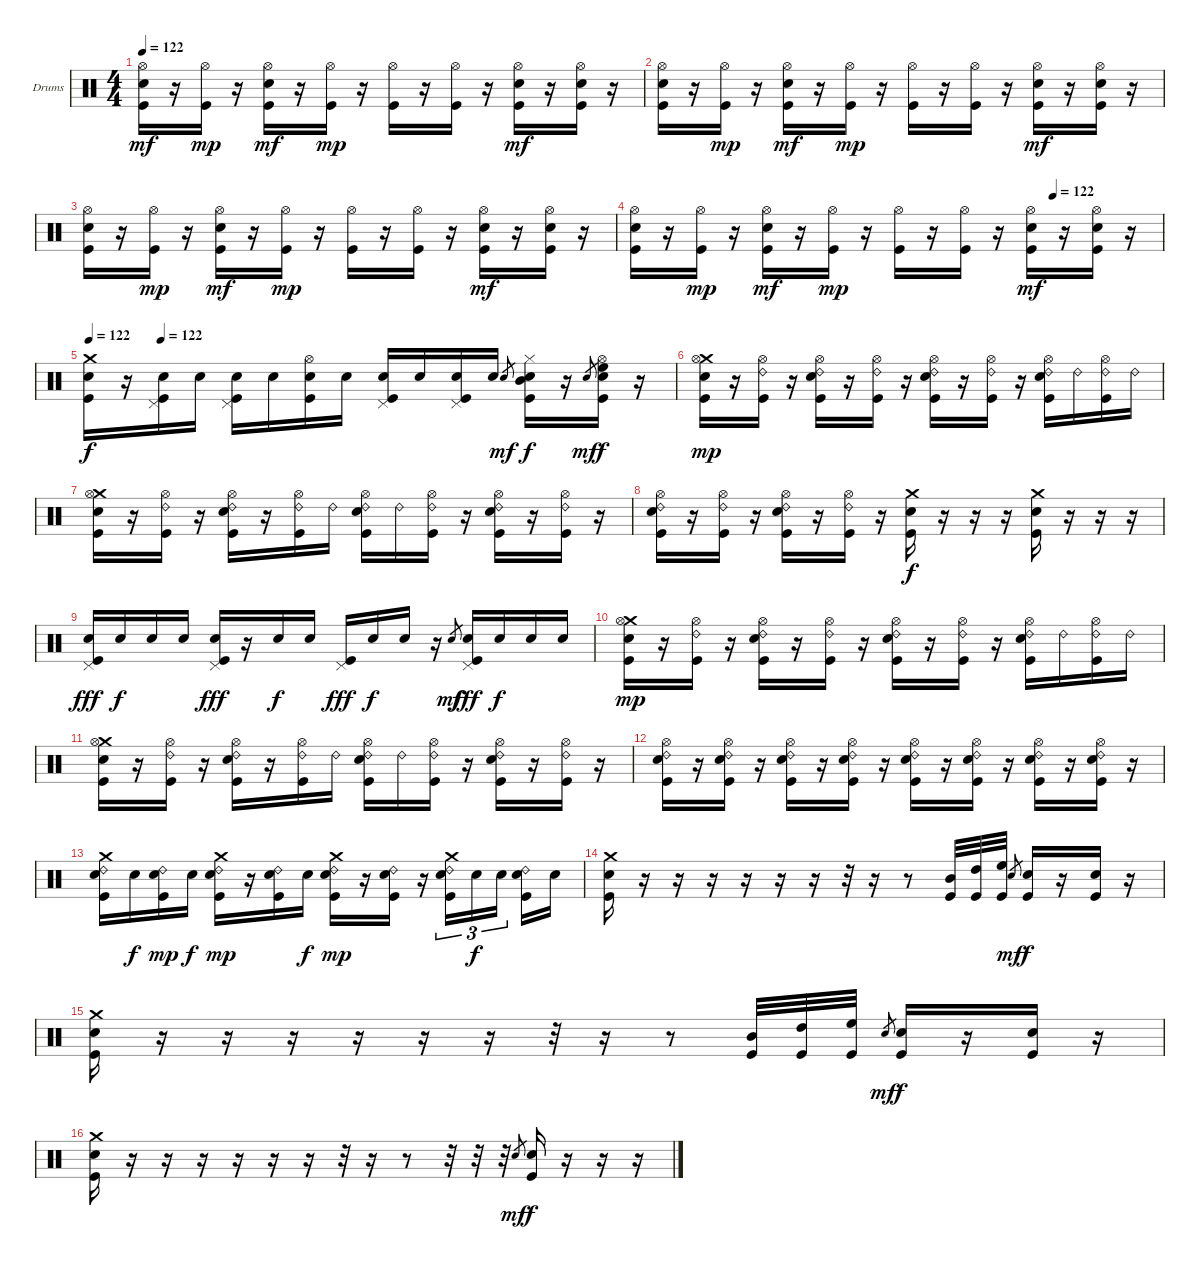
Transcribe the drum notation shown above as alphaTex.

\bracketExtendMode groupsimilarinstruments
\firstSystemTrackNameOrientation horizontal
\otherSystemsTrackNameOrientation horizontal
\track ("Drumkit" "Drums") {instrument percussion}
\staff {score}
\articulation defaults
\ts (4 4)
\tempo 122
\clef neutral
\ks c
("Hi-Hat (open)" "Snare (hit) 2" "Kick (hit)").16{dy mf} r.16 ("Hi-Hat (open)" "Kick (hit)").16{dy mp} r.16 ("Hi-Hat (open)" "Snare (hit) 2" "Kick (hit)").16{dy mf} r.16 ("Hi-Hat (open)" "Kick (hit)").16{dy mp} r.16 ("Hi-Hat (open)" "Kick (hit)").16 r.16 ("Hi-Hat (open)" "Kick (hit)").16 r.16 ("Hi-Hat (open)" "Snare (hit) 2" "Kick (hit)").16{dy mf} r.16 ("Hi-Hat (open)" "Snare (hit) 2" "Kick (hit)").16 r.16 |
("Hi-Hat (open)" "Snare (hit) 2" "Kick (hit)").16 r.16 ("Hi-Hat (open)" "Kick (hit)").16{dy mp} r.16 ("Hi-Hat (open)" "Snare (hit) 2" "Kick (hit)").16{dy mf} r.16 ("Hi-Hat (open)" "Kick (hit)").16{dy mp} r.16 ("Hi-Hat (open)" "Kick (hit)").16 r.16 ("Hi-Hat (open)" "Kick (hit)").16 r.16 ("Hi-Hat (open)" "Snare (hit) 2" "Kick (hit)").16{dy mf} r.16 ("Hi-Hat (open)" "Snare (hit) 2" "Kick (hit)").16 r.16 |
("Hi-Hat (open)" "Snare (hit) 2" "Kick (hit)").16 r.16 ("Hi-Hat (open)" "Kick (hit)").16{dy mp} r.16 ("Hi-Hat (open)" "Snare (hit) 2" "Kick (hit)").16{dy mf} r.16 ("Hi-Hat (open)" "Kick (hit)").16{dy mp} r.16 ("Hi-Hat (open)" "Kick (hit)").16 r.16 ("Hi-Hat (open)" "Kick (hit)").16 r.16 ("Hi-Hat (open)" "Snare (hit) 2" "Kick (hit)").16{dy mf} r.16 ("Hi-Hat (open)" "Snare (hit) 2" "Kick (hit)").16 r.16 |
\tempo (122 0.79375)
("Hi-Hat (open)" "Snare (hit) 2" "Kick (hit)").16 r.16 ("Hi-Hat (open)" "Kick (hit)").16{dy mp} r.16 ("Hi-Hat (open)" "Snare (hit) 2" "Kick (hit)").16{dy mf} r.16 ("Hi-Hat (open)" "Kick (hit)").16{dy mp} r.16 ("Hi-Hat (open)" "Kick (hit)").16 r.16 ("Hi-Hat (open)" "Kick (hit)").16 r.16 ("Hi-Hat (open)" "Snare (hit) 2" "Kick (hit)").16{dy mf} r.16 ("Hi-Hat (open)" "Snare (hit) 2" "Kick (hit)").16 r.16 |
\tempo 122
\tempo (122 0.123077)
("Crash medium (hit)" "Snare (hit) 2" "Kick (hit)").16{dy f} r.16 ("Pedal Hi-Hat (hit)" "Snare (hit) 2" "Kick (hit)").16 "Snare (hit) 2".16 ("Pedal Hi-Hat (hit)" "Snare (hit) 2" "Kick (hit)").16 "Snare (hit) 2".16 ("Hi-Hat (open)" "Snare (hit) 2" "Kick (hit)").16 "Snare (hit) 2".16 ("Pedal Hi-Hat (hit)" "Snare (hit) 2" "Kick (hit)").16 "Snare (hit) 2".16 ("Pedal Hi-Hat (hit)" "Snare (hit) 2" "Kick (hit)").16 "Snare (hit) 2".16 "Snare (hit) 2".8{gr dy mf} ("Hi-Hat (closed)" "Snare (hit) 2" "Mid Tom (hit)" "Kick (hit)").16{dy f} r.16 "Snare (hit) 2".8{gr dy mf} ("Hi-Hat (open)" "Snare (hit) 2" "High Floor Tom (hit)" "Kick (hit)").16{dy f} r.16 |
\section ("" "")
("Crash medium (hit)" "Hi-Hat (open)" "Snare (hit) 2" "Kick (hit)").16{dy mp} r.16 ("Ride (bell) 2" "Hi-Hat (open)" "Kick (hit)").16 r.16 ("Ride (bell) 2" "Hi-Hat (open)" "Snare (hit) 2" "Kick (hit)").16 r.16 ("Ride (bell) 2" "Hi-Hat (open)" "Kick (hit)").16 r.16 ("Ride (bell) 2" "Hi-Hat (open)" "Snare (hit) 2" "Kick (hit)").16 r.16 ("Ride (bell) 2" "Hi-Hat (open)" "Kick (hit)").16 r.16 ("Ride (bell) 2" "Hi-Hat (open)" "Snare (hit) 2" "Kick (hit)").16 "Ride (bell) 2".16 ("Ride (bell) 2" "Hi-Hat (open)" "Kick (hit)").16 "Ride (bell) 2".16 |
("Crash medium (hit)" "Hi-Hat (open)" "Snare (hit) 2" "Kick (hit)").16 r.16 ("Ride (bell) 2" "Hi-Hat (open)" "Kick (hit)").16 r.16 ("Ride (bell) 2" "Hi-Hat (open)" "Snare (hit) 2" "Kick (hit)").16 r.16 ("Ride (bell) 2" "Hi-Hat (open)" "Kick (hit)").16 "Ride (bell) 2".16 ("Ride (bell) 2" "Hi-Hat (open)" "Snare (hit) 2" "Kick (hit)").16 "Ride (bell) 2".16 ("Ride (bell) 2" "Hi-Hat (open)" "Kick (hit)").16 r.16 ("Ride (bell) 2" "Hi-Hat (open)" "Snare (hit) 2" "Kick (hit)").16 r.16 ("Ride (bell) 2" "Hi-Hat (open)" "Kick (hit)").16 r.16 |
("Ride (bell) 2" "Hi-Hat (open)" "Snare (hit) 2" "Kick (hit)").16 r.16 ("Ride (bell) 2" "Hi-Hat (open)" "Kick (hit)").16 r.16 ("Ride (bell) 2" "Hi-Hat (open)" "Snare (hit) 2" "Kick (hit)").16 r.16 ("Ride (bell) 2" "Hi-Hat (open)" "Kick (hit)").16 r.16 ("Crash medium (hit)" "Snare (hit) 2" "Kick (hit)").16{dy f} r.16 r.16 r.16 ("Crash medium (hit)" "Snare (hit) 2" "Kick (hit)").16 r.16 r.16 r.16 |
("Pedal Hi-Hat (hit)" "Snare (hit) 2" "Kick (hit)").16{dy fff} "Snare (hit) 2".16{dy f} "Snare (hit) 2".16 "Snare (hit) 2".16 ("Pedal Hi-Hat (hit)" "Snare (hit) 2" "Kick (hit)").16{dy fff} r.16 "Snare (hit) 2".16{dy f} "Snare (hit) 2".16 ("Pedal Hi-Hat (hit)" "Kick (hit)").16{dy fff} "Snare (hit) 2".16{dy f} "Snare (hit) 2".16 r.16 "Snare (hit) 2".8{gr dy mf} ("Pedal Hi-Hat (hit)" "Snare (hit) 2" "Kick (hit)").16{dy fff} "Snare (hit) 2".16{dy f} "Snare (hit) 2".16 "Snare (hit) 2".16 |
("Crash medium (hit)" "Hi-Hat (open)" "Snare (hit) 2" "Kick (hit)").16{dy mp} r.16 ("Ride (bell) 2" "Hi-Hat (open)" "Kick (hit)").16 r.16 ("Ride (bell) 2" "Hi-Hat (open)" "Snare (hit) 2" "Kick (hit)").16 r.16 ("Ride (bell) 2" "Hi-Hat (open)" "Kick (hit)").16 r.16 ("Ride (bell) 2" "Hi-Hat (open)" "Snare (hit) 2" "Kick (hit)").16 r.16 ("Ride (bell) 2" "Hi-Hat (open)" "Kick (hit)").16 r.16 ("Ride (bell) 2" "Hi-Hat (open)" "Snare (hit) 2" "Kick (hit)").16 "Ride (bell) 2".16 ("Ride (bell) 2" "Hi-Hat (open)" "Kick (hit)").16 "Ride (bell) 2".16 |
("Crash medium (hit)" "Hi-Hat (open)" "Snare (hit) 2" "Kick (hit)").16 r.16 ("Ride (bell) 2" "Hi-Hat (open)" "Kick (hit)").16 r.16 ("Ride (bell) 2" "Hi-Hat (open)" "Snare (hit) 2" "Kick (hit)").16 r.16 ("Ride (bell) 2" "Hi-Hat (open)" "Kick (hit)").16 "Ride (bell) 2".16 ("Ride (bell) 2" "Hi-Hat (open)" "Snare (hit) 2" "Kick (hit)").16 "Ride (bell) 2".16 ("Ride (bell) 2" "Hi-Hat (open)" "Kick (hit)").16 r.16 ("Ride (bell) 2" "Hi-Hat (open)" "Snare (hit) 2" "Kick (hit)").16 r.16 ("Ride (bell) 2" "Hi-Hat (open)" "Kick (hit)").16 r.16 |
("Ride (bell) 2" "Hi-Hat (open)" "Snare (hit) 2" "Kick (hit)").16 r.16 ("Ride (bell) 2" "Hi-Hat (open)" "Snare (hit) 2" "Kick (hit)").16 r.16 ("Ride (bell) 2" "Hi-Hat (open)" "Snare (hit) 2" "Kick (hit)").16 r.16 ("Ride (bell) 2" "Hi-Hat (open)" "Snare (hit) 2" "Kick (hit)").16 r.16 ("Ride (bell) 2" "Hi-Hat (open)" "Snare (hit) 2" "Kick (hit)").16 r.16 ("Ride (bell) 2" "Hi-Hat (open)" "Snare (hit) 2" "Kick (hit)").16 r.16 ("Ride (bell) 2" "Hi-Hat (open)" "Snare (hit) 2" "Kick (hit)").16 r.16 ("Ride (bell) 2" "Hi-Hat (open)" "Snare (hit) 2" "Kick (hit)").16 r.16 |
("Ride (bell) 2" "Crash medium (hit)" "Snare (hit) 2" "Kick (hit)").16 "Snare (hit) 2".16{dy f} ("Ride (bell) 2" "Snare (hit) 2" "Kick (hit)").16{dy mp} "Snare (hit) 2".16{dy f} ("Ride (bell) 2" "Crash medium (hit)" "Snare (hit) 2" "Kick (hit)").16{dy mp} r.16 ("Ride (bell) 2" "Snare (hit) 2" "Kick (hit)").16 "Snare (hit) 2".16{dy f} ("Ride (bell) 2" "Crash medium (hit)" "Snare (hit) 2" "Kick (hit)").16{dy mp} r.16 ("Ride (bell) 2" "Snare (hit) 2" "Kick (hit)").16 r.16 ("Ride (bell) 2" "Crash medium (hit)" "Snare (hit) 2" "Kick (hit)").16{tu (3 2)} "Snare (hit) 2".16{tu (3 2) dy f} "Snare (hit) 2".16{tu (3 2)} ("Ride (bell) 2" "Snare (hit) 2" "Kick (hit)").16 "Snare (hit) 2".16 |
("Crash medium (hit)" "Snare (hit) 2" "Kick (hit)").16 r.16 r.16 r.16 r.16 r.16 r.16 r.32 r.16 r.8 ("Mid Tom (hit)" "Kick (hit)").32 ("High Tom (hit)" "Kick (hit)").32 ("High Floor Tom (hit)" "Kick (hit)").32 "Snare (hit) 2".8{gr dy mf} ("Snare (hit) 2" "Kick (hit)").16{dy f} r.16 ("Snare (hit) 2" "Kick (hit)").16 r.16 |
("Crash medium (hit)" "Snare (hit) 2" "Kick (hit)").16 r.16 r.16 r.16 r.16 r.16 r.16 r.32 r.16 r.8 ("Mid Tom (hit)" "Kick (hit)").32 ("High Tom (hit)" "Kick (hit)").32 ("High Floor Tom (hit)" "Kick (hit)").32 "Snare (hit) 2".8{gr dy mf} ("Snare (hit) 2" "Kick (hit)").16{dy f} r.16 ("Snare (hit) 2" "Kick (hit)").16 r.16 |
("Crash medium (hit)" "Snare (hit) 2" "Kick (hit)").16 r.16 r.16 r.16 r.16 r.16 r.16 r.32 r.16 r.8 r.32 r.32 r.32 "Snare (hit) 2".8{gr dy mf} ("Snare (hit) 2" "Kick (hit)").16{dy f} r.16 r.16 r.16
